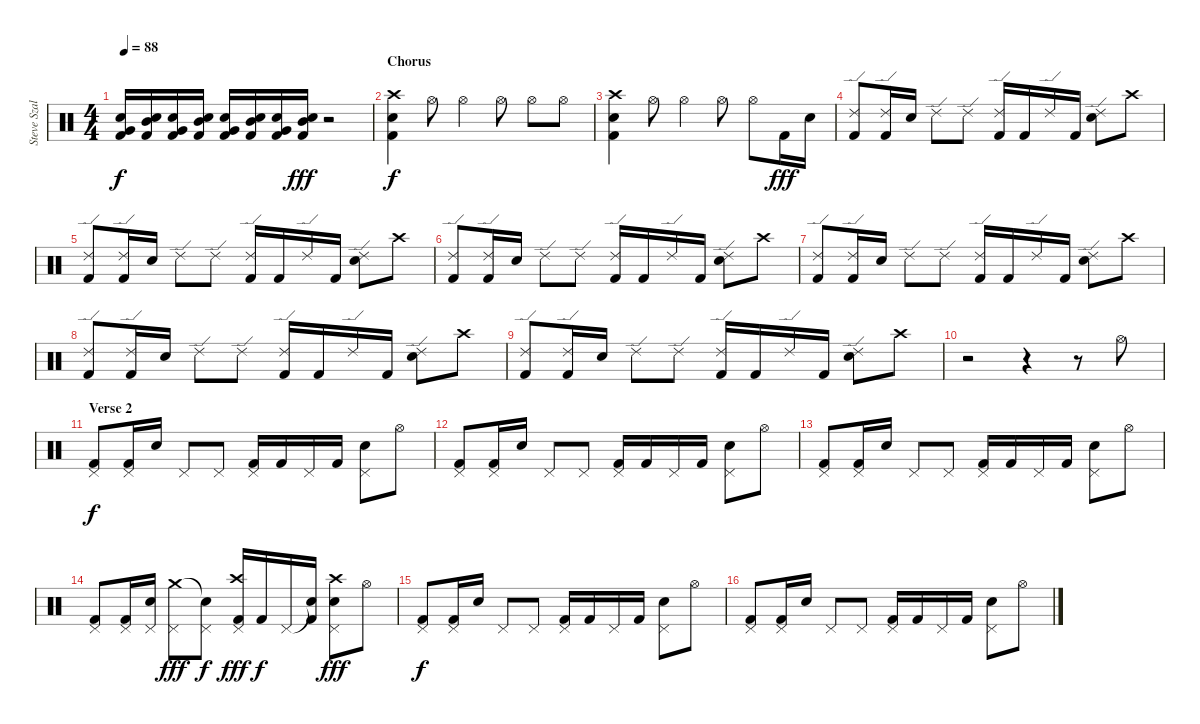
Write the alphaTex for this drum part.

\track ("Steve Szalay " "Steve Szal") {instrument percussion}
\staff {score}
\articulation defaults
\ts (4 4)
\tempo 88
\clef neutral
\ks c
("Electric Snare (hit)" "Kick (hit) 2" "Very Low Tom (hit)").16{dy f} ("Electric Snare (hit)" "Kick (hit) 2" "Mid Tom (hit)").16 ("Electric Snare (hit)" "Kick (hit) 2" "Very Low Tom (hit)").16 ("Electric Snare (hit)" "Kick (hit) 2" "Mid Tom (hit)").16 ("Electric Snare (hit)" "Kick (hit) 2" "Very Low Tom (hit)").16 ("Electric Snare (hit)" "Kick (hit) 2" "Mid Tom (hit)").16 ("Electric Snare (hit)" "Kick (hit) 2" "Very Low Tom (hit)").16 ("Electric Snare (hit)" "Kick (hit) 2" "Mid Tom (hit)").16{dy fff} r.2 |
\section ("" "Chorus")
("Crash high (hit)" "Electric Snare (hit)" "Kick (hit) 2").4{dy f} "Hi-Hat (open)".8 "Hi-Hat (open)".4 "Hi-Hat (open)".8 "Hi-Hat (open)".8 "Hi-Hat (open)".8 |
("Crash high (hit)" "Electric Snare (hit)" "Kick (hit) 2").4 "Hi-Hat (open)".8 "Hi-Hat (open)".4 "Hi-Hat (open)".8 "Hi-Hat (open)".8 "Kick (hit) 2".16{dy fff} "Electric Snare (hit)".16 |
("Ride (edge) 2" "Kick (hit) 2").8 ("Ride (edge) 2" "Kick (hit) 2").16 "Electric Snare (hit)".16 "Ride (edge) 2".8 "Ride (edge) 2".8 ("Ride (edge) 2" "Kick (hit) 2").16 "Kick (hit) 2".16 "Ride (edge) 2".16 "Kick (hit) 2".16 ("Ride (edge) 2" "Electric Snare (hit)").8 "Crash high (hit)".8 |
("Ride (edge) 2" "Kick (hit) 2").8 ("Ride (edge) 2" "Kick (hit) 2").16 "Electric Snare (hit)".16 "Ride (edge) 2".8 "Ride (edge) 2".8 ("Ride (edge) 2" "Kick (hit) 2").16 "Kick (hit) 2".16 "Ride (edge) 2".16 "Kick (hit) 2".16 ("Ride (edge) 2" "Electric Snare (hit)").8 "Crash high (hit)".8 |
("Ride (edge) 2" "Kick (hit) 2").8 ("Ride (edge) 2" "Kick (hit) 2").16 "Electric Snare (hit)".16 "Ride (edge) 2".8 "Ride (edge) 2".8 ("Ride (edge) 2" "Kick (hit) 2").16 "Kick (hit) 2".16 "Ride (edge) 2".16 "Kick (hit) 2".16 ("Ride (edge) 2" "Electric Snare (hit)").8 "Crash high (hit)".8 |
("Ride (edge) 2" "Kick (hit) 2").8 ("Ride (edge) 2" "Kick (hit) 2").16 "Electric Snare (hit)".16 "Ride (edge) 2".8 "Ride (edge) 2".8 ("Ride (edge) 2" "Kick (hit) 2").16 "Kick (hit) 2".16 "Ride (edge) 2".16 "Kick (hit) 2".16 ("Ride (edge) 2" "Electric Snare (hit)").8 "Crash high (hit)".8 |
("Ride (edge) 2" "Kick (hit) 2").8 ("Ride (edge) 2" "Kick (hit) 2").16 "Electric Snare (hit)".16 "Ride (edge) 2".8 "Ride (edge) 2".8 ("Ride (edge) 2" "Kick (hit) 2").16 "Kick (hit) 2".16 "Ride (edge) 2".16 "Kick (hit) 2".16 ("Ride (edge) 2" "Electric Snare (hit)").8 "Crash high (hit)".8 |
("Ride (edge) 2" "Kick (hit) 2").8 ("Ride (edge) 2" "Kick (hit) 2").16 "Electric Snare (hit)".16 "Ride (edge) 2".8 "Ride (edge) 2".8 ("Ride (edge) 2" "Kick (hit) 2").16 "Kick (hit) 2".16 "Ride (edge) 2".16 "Kick (hit) 2".16 ("Ride (edge) 2" "Electric Snare (hit)").8 "Crash high (hit)".8 |
r.2 r.4 r.8 "Hi-Hat (open)".8 |
\section ("" "Verse 2")
("Pedal Hi-Hat (hit)" "Kick (hit) 2").8{dy f} ("Pedal Hi-Hat (hit)" "Kick (hit) 2").16 "Electric Snare (hit)".16 "Pedal Hi-Hat (hit)".8 "Pedal Hi-Hat (hit)".8 ("Pedal Hi-Hat (hit)" "Kick (hit) 2").16 "Kick (hit) 2".16 "Pedal Hi-Hat (hit)".16 "Kick (hit) 2".16 ("Pedal Hi-Hat (hit)" "Electric Snare (hit)").8 "Hi-Hat (open)".8 |
("Pedal Hi-Hat (hit)" "Kick (hit) 2").8 ("Pedal Hi-Hat (hit)" "Kick (hit) 2").16 "Electric Snare (hit)".16 "Pedal Hi-Hat (hit)".8 "Pedal Hi-Hat (hit)".8 ("Pedal Hi-Hat (hit)" "Kick (hit) 2").16 "Kick (hit) 2".16 "Pedal Hi-Hat (hit)".16 "Kick (hit) 2".16 ("Pedal Hi-Hat (hit)" "Electric Snare (hit)").8 "Hi-Hat (open)".8 |
("Pedal Hi-Hat (hit)" "Kick (hit) 2").8 ("Pedal Hi-Hat (hit)" "Kick (hit) 2").16 "Electric Snare (hit)".16 "Pedal Hi-Hat (hit)".8 "Pedal Hi-Hat (hit)".8 ("Pedal Hi-Hat (hit)" "Kick (hit) 2").16 "Kick (hit) 2".16 "Pedal Hi-Hat (hit)".16 "Kick (hit) 2".16 ("Pedal Hi-Hat (hit)" "Electric Snare (hit)").8 "Hi-Hat (open)".8 |
("Pedal Hi-Hat (hit)" "Kick (hit) 2").8 ("Pedal Hi-Hat (hit)" "Kick (hit) 2").16 ("Pedal Hi-Hat (hit)" "Electric Snare (hit)").16 ("Crash medium (hit)" "Pedal Hi-Hat (hit)").8{dy fff} ("Snare (hit)"{t} "Pedal Hi-Hat (hit)").8{dy f} ("Crash high (hit)" "Pedal Hi-Hat (hit)" "Kick (hit) 2").16{dy fff} "Kick (hit) 2".16{dy f} "Pedal Hi-Hat (hit)".16 ("Snare (hit)"{t} "Kick (hit) 2").16 ("Crash high (hit)" "Pedal Hi-Hat (hit)" "Electric Snare (hit)").8{dy fff} "Hi-Hat (open)".8 |
("Pedal Hi-Hat (hit)" "Kick (hit) 2").8{dy f} ("Pedal Hi-Hat (hit)" "Kick (hit) 2").16 "Electric Snare (hit)".16 "Pedal Hi-Hat (hit)".8 "Pedal Hi-Hat (hit)".8 ("Pedal Hi-Hat (hit)" "Kick (hit) 2").16 "Kick (hit) 2".16 "Pedal Hi-Hat (hit)".16 "Kick (hit) 2".16 ("Pedal Hi-Hat (hit)" "Electric Snare (hit)").8 "Hi-Hat (open)".8 |
("Pedal Hi-Hat (hit)" "Kick (hit) 2").8 ("Pedal Hi-Hat (hit)" "Kick (hit) 2").16 "Electric Snare (hit)".16 "Pedal Hi-Hat (hit)".8 "Pedal Hi-Hat (hit)".8 ("Pedal Hi-Hat (hit)" "Kick (hit) 2").16 "Kick (hit) 2".16 "Pedal Hi-Hat (hit)".16 "Kick (hit) 2".16 ("Pedal Hi-Hat (hit)" "Electric Snare (hit)").8 "Hi-Hat (open)".8
